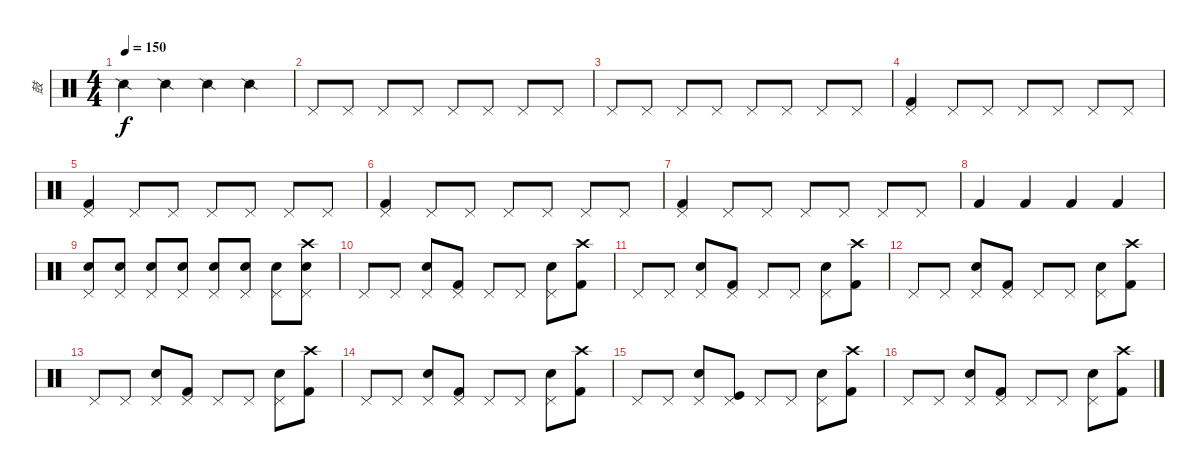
\track ("鼓" "鼓") {instrument percussion}
\staff {score}
\articulation defaults
\ts (4 4)
\tempo 150
\clef neutral
\ks c "Snare (side stick) 2".4{dy f} "Snare (side stick) 2".4 "Snare (side stick) 2".4 "Snare (side stick) 2".4
|
"Pedal Hi-Hat (hit)".8 "Pedal Hi-Hat (hit)".8 "Pedal Hi-Hat (hit)".8 "Pedal Hi-Hat (hit)".8 "Pedal Hi-Hat (hit)".8 "Pedal Hi-Hat (hit)".8 "Pedal Hi-Hat (hit)".8 "Pedal Hi-Hat (hit)".8 |
"Pedal Hi-Hat (hit)".8 "Pedal Hi-Hat (hit)".8 "Pedal Hi-Hat (hit)".8 "Pedal Hi-Hat (hit)".8 "Pedal Hi-Hat (hit)".8 "Pedal Hi-Hat (hit)".8 "Pedal Hi-Hat (hit)".8 "Pedal Hi-Hat (hit)".8 |
("Pedal Hi-Hat (hit)" "Kick (hit) 2").4 "Pedal Hi-Hat (hit)".8 "Pedal Hi-Hat (hit)".8 "Pedal Hi-Hat (hit)".8 "Pedal Hi-Hat (hit)".8 "Pedal Hi-Hat (hit)".8 "Pedal Hi-Hat (hit)".8 |
("Pedal Hi-Hat (hit)" "Kick (hit) 2").4 "Pedal Hi-Hat (hit)".8 "Pedal Hi-Hat (hit)".8 "Pedal Hi-Hat (hit)".8 "Pedal Hi-Hat (hit)".8 "Pedal Hi-Hat (hit)".8 "Pedal Hi-Hat (hit)".8 |
("Pedal Hi-Hat (hit)" "Kick (hit) 2").4 "Pedal Hi-Hat (hit)".8 "Pedal Hi-Hat (hit)".8 "Pedal Hi-Hat (hit)".8 "Pedal Hi-Hat (hit)".8 "Pedal Hi-Hat (hit)".8 "Pedal Hi-Hat (hit)".8 |
("Pedal Hi-Hat (hit)" "Kick (hit) 2").4 "Pedal Hi-Hat (hit)".8 "Pedal Hi-Hat (hit)".8 "Pedal Hi-Hat (hit)".8 "Pedal Hi-Hat (hit)".8 "Pedal Hi-Hat (hit)".8 "Pedal Hi-Hat (hit)".8 |
"Kick (hit) 2".4 "Kick (hit) 2".4 "Kick (hit) 2".4 "Kick (hit) 2".4 |
("Pedal Hi-Hat (hit)" "Electric Snare (hit)").8 ("Pedal Hi-Hat (hit)" "Electric Snare (hit)").8 ("Pedal Hi-Hat (hit)" "Electric Snare (hit)").8 ("Pedal Hi-Hat (hit)" "Electric Snare (hit)").8 ("Pedal Hi-Hat (hit)" "Electric Snare (hit)").8 ("Pedal Hi-Hat (hit)" "Electric Snare (hit)").8 ("Pedal Hi-Hat (hit)" "Electric Snare (hit)").8 ("Crash high (hit)" "Pedal Hi-Hat (hit)" "Electric Snare (hit)").8 |
"Pedal Hi-Hat (hit)".8 "Pedal Hi-Hat (hit)".8 ("Pedal Hi-Hat (hit)" "Electric Snare (hit)").8 ("Pedal Hi-Hat (hit)" "Kick (hit) 2").8 "Pedal Hi-Hat (hit)".8 "Pedal Hi-Hat (hit)".8 ("Pedal Hi-Hat (hit)" "Electric Snare (hit)").8 ("Crash high (hit)" "Kick (hit) 2").8 |
"Pedal Hi-Hat (hit)".8 "Pedal Hi-Hat (hit)".8 ("Pedal Hi-Hat (hit)" "Electric Snare (hit)").8 ("Pedal Hi-Hat (hit)" "Kick (hit) 2").8 "Pedal Hi-Hat (hit)".8 "Pedal Hi-Hat (hit)".8 ("Pedal Hi-Hat (hit)" "Electric Snare (hit)").8 ("Crash high (hit)" "Kick (hit) 2").8 |
"Pedal Hi-Hat (hit)".8 "Pedal Hi-Hat (hit)".8 ("Pedal Hi-Hat (hit)" "Electric Snare (hit)").8 ("Pedal Hi-Hat (hit)" "Kick (hit) 2").8 "Pedal Hi-Hat (hit)".8 "Pedal Hi-Hat (hit)".8 ("Pedal Hi-Hat (hit)" "Electric Snare (hit)").8 ("Crash high (hit)" "Kick (hit) 2").8 |
"Pedal Hi-Hat (hit)".8 "Pedal Hi-Hat (hit)".8 ("Pedal Hi-Hat (hit)" "Electric Snare (hit)").8 ("Pedal Hi-Hat (hit)" "Kick (hit) 2").8 "Pedal Hi-Hat (hit)".8 "Pedal Hi-Hat (hit)".8 ("Pedal Hi-Hat (hit)" "Electric Snare (hit)").8 ("Crash high (hit)" "Kick (hit) 2").8 |
"Pedal Hi-Hat (hit)".8 "Pedal Hi-Hat (hit)".8 ("Pedal Hi-Hat (hit)" "Electric Snare (hit)").8 ("Pedal Hi-Hat (hit)" "Kick (hit) 2").8 "Pedal Hi-Hat (hit)".8 "Pedal Hi-Hat (hit)".8 ("Pedal Hi-Hat (hit)" "Electric Snare (hit)").8 ("Crash high (hit)" "Kick (hit) 2").8 |
"Pedal Hi-Hat (hit)".8 "Pedal Hi-Hat (hit)".8 ("Pedal Hi-Hat (hit)" "Electric Snare (hit)").8 ("Pedal Hi-Hat (hit)" "Kick (hit)").8 "Pedal Hi-Hat (hit)".8 "Pedal Hi-Hat (hit)".8 ("Pedal Hi-Hat (hit)" "Electric Snare (hit)").8 ("Crash high (hit)" "Kick (hit) 2").8 |
"Pedal Hi-Hat (hit)".8 "Pedal Hi-Hat (hit)".8 ("Pedal Hi-Hat (hit)" "Electric Snare (hit)").8 ("Pedal Hi-Hat (hit)" "Kick (hit) 2").8 "Pedal Hi-Hat (hit)".8 "Pedal Hi-Hat (hit)".8 ("Pedal Hi-Hat (hit)" "Electric Snare (hit)").8 ("Crash high (hit)" "Kick (hit) 2").8
